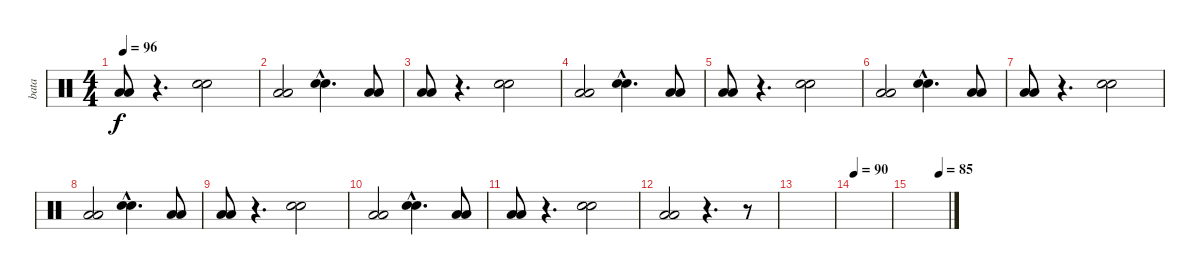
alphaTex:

\track ("bata" "bata") {instrument percussion}
\staff {score}
\articulation defaults
\ts (4 4)
\tempo 96
\clef neutral
\ks c
("Low Floor Tom (hit)" "Low Floor Tom (hit)").8{dy f} r.4{d} ("Electric Snare (hit)" "Electric Snare (hit)").2 |
("Low Floor Tom (hit)" "Low Floor Tom (hit)").2 ("Electric Snare (hit)"{hac} "Electric Snare (hit)"{hac}).4{d} ("Low Floor Tom (hit)" "Low Floor Tom (hit)").8 |
("Low Floor Tom (hit)" "Low Floor Tom (hit)").8 r.4{d} ("Electric Snare (hit)" "Electric Snare (hit)").2 |
("Low Floor Tom (hit)" "Low Floor Tom (hit)").2 ("Electric Snare (hit)"{hac} "Electric Snare (hit)"{hac}).4{d} ("Low Floor Tom (hit)" "Low Floor Tom (hit)").8 |
("Low Floor Tom (hit)" "Low Floor Tom (hit)").8 r.4{d} ("Electric Snare (hit)" "Electric Snare (hit)").2 |
("Low Floor Tom (hit)" "Low Floor Tom (hit)").2 ("Electric Snare (hit)"{hac} "Electric Snare (hit)"{hac}).4{d} ("Low Floor Tom (hit)" "Low Floor Tom (hit)").8 |
("Low Floor Tom (hit)" "Low Floor Tom (hit)").8 r.4{d} ("Electric Snare (hit)" "Electric Snare (hit)").2 |
("Low Floor Tom (hit)" "Low Floor Tom (hit)").2 ("Electric Snare (hit)"{hac} "Electric Snare (hit)"{hac}).4{d} ("Low Floor Tom (hit)" "Low Floor Tom (hit)").8 |
("Low Floor Tom (hit)" "Low Floor Tom (hit)").8 r.4{d} ("Electric Snare (hit)" "Electric Snare (hit)").2 |
("Low Floor Tom (hit)" "Low Floor Tom (hit)").2 ("Electric Snare (hit)"{hac} "Electric Snare (hit)"{hac}).4{d} ("Low Floor Tom (hit)" "Low Floor Tom (hit)").8 |
("Low Floor Tom (hit)" "Low Floor Tom (hit)").8 r.4{d} ("Electric Snare (hit)" "Electric Snare (hit)").2 |
("Low Floor Tom (hit)" "Low Floor Tom (hit)").2 r.4{d} r.8 |
|
\tempo 90
|
\tempo (85 0.75)
